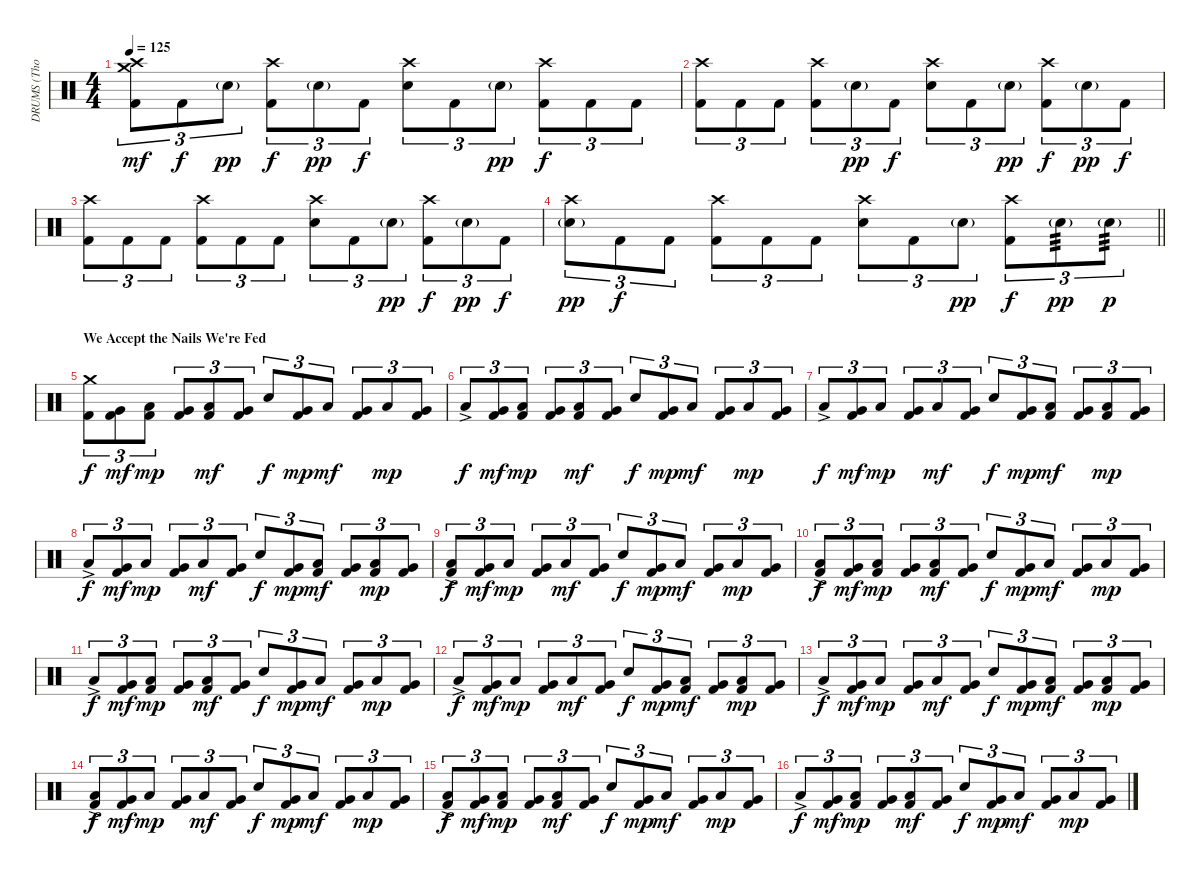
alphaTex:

\track ("DRUMS (Thomas Haake)" "DRUMS (Tho") {instrument percussion}
\staff {score}
\articulation defaults
\ts (4 4)
\tempo 125
\clef neutral
\ks c
("Crash high (hit)" "Crash medium (hit)" "Kick (hit) 2").8{tu (3 2) dy mf} "Kick (hit) 2".8{tu (3 2) dy f} "Electric Snare (hit)"{g}.8{tu (3 2) dy pp} ("Crash high (hit)" "Kick (hit) 2").8{tu (3 2) dy f} "Electric Snare (hit)"{g}.8{tu (3 2) dy pp} "Kick (hit) 2".8{tu (3 2) dy f} ("Crash high (hit)" "Electric Snare (hit)").8{tu (3 2)} "Kick (hit) 2".8{tu (3 2)} "Electric Snare (hit)"{g}.8{tu (3 2) dy pp} ("Crash high (hit)" "Kick (hit) 2").8{tu (3 2) dy f} "Kick (hit) 2".8{tu (3 2)} "Kick (hit) 2".8{tu (3 2)} |
("Crash high (hit)" "Kick (hit) 2").8{tu (3 2)} "Kick (hit) 2".8{tu (3 2)} "Kick (hit) 2".8{tu (3 2)} ("Crash high (hit)" "Kick (hit) 2").8{tu (3 2)} "Electric Snare (hit)"{g}.8{tu (3 2) dy pp} "Kick (hit) 2".8{tu (3 2) dy f} ("Crash high (hit)" "Electric Snare (hit)").8{tu (3 2)} "Kick (hit) 2".8{tu (3 2)} "Electric Snare (hit)"{g}.8{tu (3 2) dy pp} ("Crash high (hit)" "Kick (hit) 2").8{tu (3 2) dy f} "Electric Snare (hit)"{g}.8{tu (3 2) dy pp} "Kick (hit) 2".8{tu (3 2) dy f} |
("Crash high (hit)" "Kick (hit) 2").8{tu (3 2)} "Kick (hit) 2".8{tu (3 2)} "Kick (hit) 2".8{tu (3 2)} ("Crash high (hit)" "Kick (hit) 2").8{tu (3 2)} "Kick (hit) 2".8{tu (3 2)} "Kick (hit) 2".8{tu (3 2)} ("Crash high (hit)" "Electric Snare (hit)").8{tu (3 2)} "Kick (hit) 2".8{tu (3 2)} "Electric Snare (hit)"{g}.8{tu (3 2) dy pp} ("Crash high (hit)" "Kick (hit) 2").8{tu (3 2) dy f} "Electric Snare (hit)"{g}.8{tu (3 2) dy pp} "Kick (hit) 2".8{tu (3 2) dy f} |
\barLineRight lightlight
("Crash high (hit)" "Electric Snare (hit)"{g}).8{tu (3 2) dy pp} "Kick (hit) 2".8{tu (3 2) dy f} "Kick (hit) 2".8{tu (3 2)} ("Crash high (hit)" "Kick (hit) 2").8{tu (3 2)} "Kick (hit) 2".8{tu (3 2)} "Kick (hit) 2".8{tu (3 2)} ("Crash high (hit)" "Electric Snare (hit)").8{tu (3 2)} "Kick (hit) 2".8{tu (3 2)} "Electric Snare (hit)"{g}.8{tu (3 2) dy pp} ("Crash high (hit)" "Kick (hit) 2").8{tu (3 2) dy f} "Electric Snare (hit)"{g}.8{tu (3 2) tp 3 dy pp} "Electric Snare (hit)"{g}.8{tu (3 2) tp 3 dy p} |
\section ("" "We Accept the Nails We're Fed")
("Crash medium (hit)" "Kick (hit) 2").8{tu (3 2) dy f} ("Very Low Tom (hit)" "Kick (hit) 2").8{tu (3 2) dy mf} ("Low Floor Tom (hit)" "Kick (hit) 2").8{tu (3 2) dy mp} ("Very Low Tom (hit)" "Kick (hit) 2").8{tu (3 2)} ("Low Floor Tom (hit)" "Kick (hit) 2").8{tu (3 2) dy mf} ("Very Low Tom (hit)" "Kick (hit) 2").8{tu (3 2)} "Electric Snare (hit)".8{tu (3 2) dy f} ("Very Low Tom (hit)" "Kick (hit) 2").8{tu (3 2) dy mp} "Low Floor Tom (hit)".8{tu (3 2) dy mf} ("Very Low Tom (hit)" "Kick (hit) 2").8{tu (3 2)} "Low Floor Tom (hit)".8{tu (3 2) dy mp} ("Very Low Tom (hit)" "Kick (hit) 2").8{tu (3 2)} |
"Low Floor Tom (hit)"{ac}.8{tu (3 2) dy f} ("Very Low Tom (hit)" "Kick (hit) 2").8{tu (3 2) dy mf} ("Low Floor Tom (hit)" "Kick (hit) 2").8{tu (3 2) dy mp} ("Very Low Tom (hit)" "Kick (hit) 2").8{tu (3 2)} ("Low Floor Tom (hit)" "Kick (hit) 2").8{tu (3 2) dy mf} ("Very Low Tom (hit)" "Kick (hit) 2").8{tu (3 2)} "Electric Snare (hit)".8{tu (3 2) dy f} ("Very Low Tom (hit)" "Kick (hit) 2").8{tu (3 2) dy mp} "Low Floor Tom (hit)".8{tu (3 2) dy mf} ("Very Low Tom (hit)" "Kick (hit) 2").8{tu (3 2)} "Low Floor Tom (hit)".8{tu (3 2) dy mp} ("Very Low Tom (hit)" "Kick (hit) 2").8{tu (3 2)} |
"Low Floor Tom (hit)"{ac}.8{tu (3 2) dy f} ("Very Low Tom (hit)" "Kick (hit) 2").8{tu (3 2) dy mf} "Low Floor Tom (hit)".8{tu (3 2) dy mp} ("Very Low Tom (hit)" "Kick (hit) 2").8{tu (3 2)} "Low Floor Tom (hit)".8{tu (3 2) dy mf} ("Very Low Tom (hit)" "Kick (hit) 2").8{tu (3 2)} "Electric Snare (hit)".8{tu (3 2) dy f} ("Very Low Tom (hit)" "Kick (hit) 2").8{tu (3 2) dy mp} ("Low Floor Tom (hit)" "Kick (hit) 2").8{tu (3 2) dy mf} ("Very Low Tom (hit)" "Kick (hit) 2").8{tu (3 2)} ("Low Floor Tom (hit)" "Kick (hit) 2").8{tu (3 2) dy mp} ("Very Low Tom (hit)" "Kick (hit) 2").8{tu (3 2)} |
"Low Floor Tom (hit)"{ac}.8{tu (3 2) dy f} ("Very Low Tom (hit)" "Kick (hit) 2").8{tu (3 2) dy mf} "Low Floor Tom (hit)".8{tu (3 2) dy mp} ("Very Low Tom (hit)" "Kick (hit) 2").8{tu (3 2)} "Low Floor Tom (hit)".8{tu (3 2) dy mf} ("Very Low Tom (hit)" "Kick (hit) 2").8{tu (3 2)} "Electric Snare (hit)".8{tu (3 2) dy f} ("Very Low Tom (hit)" "Kick (hit) 2").8{tu (3 2) dy mp} ("Low Floor Tom (hit)" "Kick (hit) 2").8{tu (3 2) dy mf} ("Very Low Tom (hit)" "Kick (hit) 2").8{tu (3 2)} ("Low Floor Tom (hit)" "Kick (hit) 2").8{tu (3 2) dy mp} ("Very Low Tom (hit)" "Kick (hit) 2").8{tu (3 2)} |
("Low Floor Tom (hit)"{ac} "Kick (hit) 2").8{tu (3 2) dy f} ("Very Low Tom (hit)" "Kick (hit) 2").8{tu (3 2) dy mf} "Low Floor Tom (hit)".8{tu (3 2) dy mp} ("Very Low Tom (hit)" "Kick (hit) 2").8{tu (3 2)} "Low Floor Tom (hit)".8{tu (3 2) dy mf} ("Very Low Tom (hit)" "Kick (hit) 2").8{tu (3 2)} "Electric Snare (hit)".8{tu (3 2) dy f} ("Very Low Tom (hit)" "Kick (hit) 2").8{tu (3 2) dy mp} "Low Floor Tom (hit)".8{tu (3 2) dy mf} ("Very Low Tom (hit)" "Kick (hit) 2").8{tu (3 2)} "Low Floor Tom (hit)".8{tu (3 2) dy mp} ("Very Low Tom (hit)" "Kick (hit) 2").8{tu (3 2)} |
("Low Floor Tom (hit)"{ac} "Kick (hit) 2").8{tu (3 2) dy f} ("Very Low Tom (hit)" "Kick (hit) 2").8{tu (3 2) dy mf} ("Low Floor Tom (hit)" "Kick (hit) 2").8{tu (3 2) dy mp} ("Very Low Tom (hit)" "Kick (hit) 2").8{tu (3 2)} ("Low Floor Tom (hit)" "Kick (hit) 2").8{tu (3 2) dy mf} ("Very Low Tom (hit)" "Kick (hit) 2").8{tu (3 2)} "Electric Snare (hit)".8{tu (3 2) dy f} ("Very Low Tom (hit)" "Kick (hit) 2").8{tu (3 2) dy mp} "Low Floor Tom (hit)".8{tu (3 2) dy mf} ("Very Low Tom (hit)" "Kick (hit) 2").8{tu (3 2)} "Low Floor Tom (hit)".8{tu (3 2) dy mp} ("Very Low Tom (hit)" "Kick (hit) 2").8{tu (3 2)} |
"Low Floor Tom (hit)"{ac}.8{tu (3 2) dy f} ("Very Low Tom (hit)" "Kick (hit) 2").8{tu (3 2) dy mf} ("Low Floor Tom (hit)" "Kick (hit) 2").8{tu (3 2) dy mp} ("Very Low Tom (hit)" "Kick (hit) 2").8{tu (3 2)} ("Low Floor Tom (hit)" "Kick (hit) 2").8{tu (3 2) dy mf} ("Very Low Tom (hit)" "Kick (hit) 2").8{tu (3 2)} "Electric Snare (hit)".8{tu (3 2) dy f} ("Very Low Tom (hit)" "Kick (hit) 2").8{tu (3 2) dy mp} "Low Floor Tom (hit)".8{tu (3 2) dy mf} ("Very Low Tom (hit)" "Kick (hit) 2").8{tu (3 2)} "Low Floor Tom (hit)".8{tu (3 2) dy mp} ("Very Low Tom (hit)" "Kick (hit) 2").8{tu (3 2)} |
"Low Floor Tom (hit)"{ac}.8{tu (3 2) dy f} ("Very Low Tom (hit)" "Kick (hit) 2").8{tu (3 2) dy mf} "Low Floor Tom (hit)".8{tu (3 2) dy mp} ("Very Low Tom (hit)" "Kick (hit) 2").8{tu (3 2)} "Low Floor Tom (hit)".8{tu (3 2) dy mf} ("Very Low Tom (hit)" "Kick (hit) 2").8{tu (3 2)} "Electric Snare (hit)".8{tu (3 2) dy f} ("Very Low Tom (hit)" "Kick (hit) 2").8{tu (3 2) dy mp} ("Low Floor Tom (hit)" "Kick (hit) 2").8{tu (3 2) dy mf} ("Very Low Tom (hit)" "Kick (hit) 2").8{tu (3 2)} ("Low Floor Tom (hit)" "Kick (hit) 2").8{tu (3 2) dy mp} ("Very Low Tom (hit)" "Kick (hit) 2").8{tu (3 2)} |
"Low Floor Tom (hit)"{ac}.8{tu (3 2) dy f} ("Very Low Tom (hit)" "Kick (hit) 2").8{tu (3 2) dy mf} "Low Floor Tom (hit)".8{tu (3 2) dy mp} ("Very Low Tom (hit)" "Kick (hit) 2").8{tu (3 2)} "Low Floor Tom (hit)".8{tu (3 2) dy mf} ("Very Low Tom (hit)" "Kick (hit) 2").8{tu (3 2)} "Electric Snare (hit)".8{tu (3 2) dy f} ("Very Low Tom (hit)" "Kick (hit) 2").8{tu (3 2) dy mp} ("Low Floor Tom (hit)" "Kick (hit) 2").8{tu (3 2) dy mf} ("Very Low Tom (hit)" "Kick (hit) 2").8{tu (3 2)} ("Low Floor Tom (hit)" "Kick (hit) 2").8{tu (3 2) dy mp} ("Very Low Tom (hit)" "Kick (hit) 2").8{tu (3 2)} |
("Low Floor Tom (hit)"{ac} "Kick (hit) 2").8{tu (3 2) dy f} ("Very Low Tom (hit)" "Kick (hit) 2").8{tu (3 2) dy mf} "Low Floor Tom (hit)".8{tu (3 2) dy mp} ("Very Low Tom (hit)" "Kick (hit) 2").8{tu (3 2)} "Low Floor Tom (hit)".8{tu (3 2) dy mf} ("Very Low Tom (hit)" "Kick (hit) 2").8{tu (3 2)} "Electric Snare (hit)".8{tu (3 2) dy f} ("Very Low Tom (hit)" "Kick (hit) 2").8{tu (3 2) dy mp} "Low Floor Tom (hit)".8{tu (3 2) dy mf} ("Very Low Tom (hit)" "Kick (hit) 2").8{tu (3 2)} "Low Floor Tom (hit)".8{tu (3 2) dy mp} ("Very Low Tom (hit)" "Kick (hit) 2").8{tu (3 2)} |
("Low Floor Tom (hit)"{ac} "Kick (hit) 2").8{tu (3 2) dy f} ("Very Low Tom (hit)" "Kick (hit) 2").8{tu (3 2) dy mf} ("Low Floor Tom (hit)" "Kick (hit) 2").8{tu (3 2) dy mp} ("Very Low Tom (hit)" "Kick (hit) 2").8{tu (3 2)} ("Low Floor Tom (hit)" "Kick (hit) 2").8{tu (3 2) dy mf} ("Very Low Tom (hit)" "Kick (hit) 2").8{tu (3 2)} "Electric Snare (hit)".8{tu (3 2) dy f} ("Very Low Tom (hit)" "Kick (hit) 2").8{tu (3 2) dy mp} "Low Floor Tom (hit)".8{tu (3 2) dy mf} ("Very Low Tom (hit)" "Kick (hit) 2").8{tu (3 2)} "Low Floor Tom (hit)".8{tu (3 2) dy mp} ("Very Low Tom (hit)" "Kick (hit) 2").8{tu (3 2)} |
"Low Floor Tom (hit)"{ac}.8{tu (3 2) dy f} ("Very Low Tom (hit)" "Kick (hit) 2").8{tu (3 2) dy mf} ("Low Floor Tom (hit)" "Kick (hit) 2").8{tu (3 2) dy mp} ("Very Low Tom (hit)" "Kick (hit) 2").8{tu (3 2)} ("Low Floor Tom (hit)" "Kick (hit) 2").8{tu (3 2) dy mf} ("Very Low Tom (hit)" "Kick (hit) 2").8{tu (3 2)} "Electric Snare (hit)".8{tu (3 2) dy f} ("Very Low Tom (hit)" "Kick (hit) 2").8{tu (3 2) dy mp} "Low Floor Tom (hit)".8{tu (3 2) dy mf} ("Very Low Tom (hit)" "Kick (hit) 2").8{tu (3 2)} "Low Floor Tom (hit)".8{tu (3 2) dy mp} ("Very Low Tom (hit)" "Kick (hit) 2").8{tu (3 2)}
